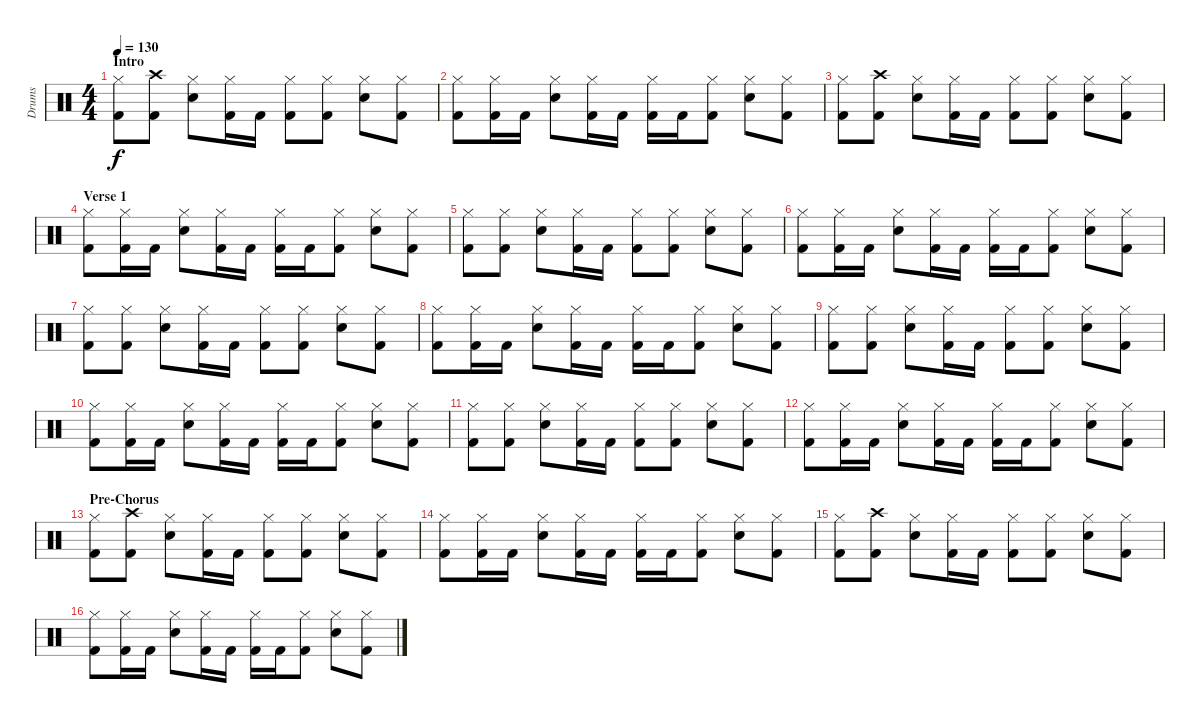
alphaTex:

\track ("Drums" "Drums") {instrument percussion}
\staff {score}
\articulation defaults
\ts (4 4)
\section ("" "Intro")
\tempo 130
\clef neutral
\ks c
("Hi-Hat (closed)" "Kick (hit) 2").8{dy f} ("Crash high (hit)" "Kick (hit) 2").8 ("Hi-Hat (closed)" "Electric Snare (hit)").8 ("Hi-Hat (closed)" "Kick (hit) 2").16 "Kick (hit) 2".16 ("Hi-Hat (closed)" "Kick (hit) 2").8 ("Hi-Hat (closed)" "Kick (hit) 2").8 ("Hi-Hat (closed)" "Electric Snare (hit)").8 ("Hi-Hat (closed)" "Kick (hit) 2").8 |
("Hi-Hat (closed)" "Kick (hit) 2").8 ("Hi-Hat (closed)" "Kick (hit) 2").16 "Kick (hit) 2".16 ("Hi-Hat (closed)" "Electric Snare (hit)").8 ("Hi-Hat (closed)" "Kick (hit) 2").16 "Kick (hit) 2".16 ("Hi-Hat (closed)" "Kick (hit) 2").16 "Kick (hit) 2".16 ("Hi-Hat (closed)" "Kick (hit) 2").8 ("Hi-Hat (closed)" "Electric Snare (hit)").8 ("Hi-Hat (closed)" "Kick (hit) 2").8 |
("Hi-Hat (closed)" "Kick (hit) 2").8 ("Crash high (hit)" "Kick (hit) 2").8 ("Hi-Hat (closed)" "Electric Snare (hit)").8 ("Hi-Hat (closed)" "Kick (hit) 2").16 "Kick (hit) 2".16 ("Hi-Hat (closed)" "Kick (hit) 2").8 ("Hi-Hat (closed)" "Kick (hit) 2").8 ("Hi-Hat (closed)" "Electric Snare (hit)").8 ("Hi-Hat (closed)" "Kick (hit) 2").8 |
\section ("" "Verse 1")
("Hi-Hat (closed)" "Kick (hit) 2").8 ("Hi-Hat (closed)" "Kick (hit) 2").16 "Kick (hit) 2".16 ("Hi-Hat (closed)" "Electric Snare (hit)").8 ("Hi-Hat (closed)" "Kick (hit) 2").16 "Kick (hit) 2".16 ("Hi-Hat (closed)" "Kick (hit) 2").16 "Kick (hit) 2".16 ("Hi-Hat (closed)" "Kick (hit) 2").8 ("Hi-Hat (closed)" "Electric Snare (hit)").8 ("Hi-Hat (closed)" "Kick (hit) 2").8 |
("Hi-Hat (closed)" "Kick (hit) 2").8 ("Hi-Hat (closed)" "Kick (hit) 2").8 ("Hi-Hat (closed)" "Electric Snare (hit)").8 ("Hi-Hat (closed)" "Kick (hit) 2").16 "Kick (hit) 2".16 ("Hi-Hat (closed)" "Kick (hit) 2").8 ("Hi-Hat (closed)" "Kick (hit) 2").8 ("Hi-Hat (closed)" "Electric Snare (hit)").8 ("Hi-Hat (closed)" "Kick (hit) 2").8 |
("Hi-Hat (closed)" "Kick (hit) 2").8 ("Hi-Hat (closed)" "Kick (hit) 2").16 "Kick (hit) 2".16 ("Hi-Hat (closed)" "Electric Snare (hit)").8 ("Hi-Hat (closed)" "Kick (hit) 2").16 "Kick (hit) 2".16 ("Hi-Hat (closed)" "Kick (hit) 2").16 "Kick (hit) 2".16 ("Hi-Hat (closed)" "Kick (hit) 2").8 ("Hi-Hat (closed)" "Electric Snare (hit)").8 ("Hi-Hat (closed)" "Kick (hit) 2").8 |
("Hi-Hat (closed)" "Kick (hit) 2").8 ("Hi-Hat (closed)" "Kick (hit) 2").8 ("Hi-Hat (closed)" "Electric Snare (hit)").8 ("Hi-Hat (closed)" "Kick (hit) 2").16 "Kick (hit) 2".16 ("Hi-Hat (closed)" "Kick (hit) 2").8 ("Hi-Hat (closed)" "Kick (hit) 2").8 ("Hi-Hat (closed)" "Electric Snare (hit)").8 ("Hi-Hat (closed)" "Kick (hit) 2").8 |
("Hi-Hat (closed)" "Kick (hit) 2").8 ("Hi-Hat (closed)" "Kick (hit) 2").16 "Kick (hit) 2".16 ("Hi-Hat (closed)" "Electric Snare (hit)").8 ("Hi-Hat (closed)" "Kick (hit) 2").16 "Kick (hit) 2".16 ("Hi-Hat (closed)" "Kick (hit) 2").16 "Kick (hit) 2".16 ("Hi-Hat (closed)" "Kick (hit) 2").8 ("Hi-Hat (closed)" "Electric Snare (hit)").8 ("Hi-Hat (closed)" "Kick (hit) 2").8 |
("Hi-Hat (closed)" "Kick (hit) 2").8 ("Hi-Hat (closed)" "Kick (hit) 2").8 ("Hi-Hat (closed)" "Electric Snare (hit)").8 ("Hi-Hat (closed)" "Kick (hit) 2").16 "Kick (hit) 2".16 ("Hi-Hat (closed)" "Kick (hit) 2").8 ("Hi-Hat (closed)" "Kick (hit) 2").8 ("Hi-Hat (closed)" "Electric Snare (hit)").8 ("Hi-Hat (closed)" "Kick (hit) 2").8 |
("Hi-Hat (closed)" "Kick (hit) 2").8 ("Hi-Hat (closed)" "Kick (hit) 2").16 "Kick (hit) 2".16 ("Hi-Hat (closed)" "Electric Snare (hit)").8 ("Hi-Hat (closed)" "Kick (hit) 2").16 "Kick (hit) 2".16 ("Hi-Hat (closed)" "Kick (hit) 2").16 "Kick (hit) 2".16 ("Hi-Hat (closed)" "Kick (hit) 2").8 ("Hi-Hat (closed)" "Electric Snare (hit)").8 ("Hi-Hat (closed)" "Kick (hit) 2").8 |
("Hi-Hat (closed)" "Kick (hit) 2").8 ("Hi-Hat (closed)" "Kick (hit) 2").8 ("Hi-Hat (closed)" "Electric Snare (hit)").8 ("Hi-Hat (closed)" "Kick (hit) 2").16 "Kick (hit) 2".16 ("Hi-Hat (closed)" "Kick (hit) 2").8 ("Hi-Hat (closed)" "Kick (hit) 2").8 ("Hi-Hat (closed)" "Electric Snare (hit)").8 ("Hi-Hat (closed)" "Kick (hit) 2").8 |
("Hi-Hat (closed)" "Kick (hit) 2").8 ("Hi-Hat (closed)" "Kick (hit) 2").16 "Kick (hit) 2".16 ("Hi-Hat (closed)" "Electric Snare (hit)").8 ("Hi-Hat (closed)" "Kick (hit) 2").16 "Kick (hit) 2".16 ("Hi-Hat (closed)" "Kick (hit) 2").16 "Kick (hit) 2".16 ("Hi-Hat (closed)" "Kick (hit) 2").8 ("Hi-Hat (closed)" "Electric Snare (hit)").8 ("Hi-Hat (closed)" "Kick (hit) 2").8 |
\section ("" "Pre-Chorus")
("Hi-Hat (closed)" "Kick (hit) 2").8 ("Crash high (hit)" "Kick (hit) 2").8 ("Hi-Hat (closed)" "Electric Snare (hit)").8 ("Hi-Hat (closed)" "Kick (hit) 2").16 "Kick (hit) 2".16 ("Hi-Hat (closed)" "Kick (hit) 2").8 ("Hi-Hat (closed)" "Kick (hit) 2").8 ("Hi-Hat (closed)" "Electric Snare (hit)").8 ("Hi-Hat (closed)" "Kick (hit) 2").8 |
("Hi-Hat (closed)" "Kick (hit) 2").8 ("Hi-Hat (closed)" "Kick (hit) 2").16 "Kick (hit) 2".16 ("Hi-Hat (closed)" "Electric Snare (hit)").8 ("Hi-Hat (closed)" "Kick (hit) 2").16 "Kick (hit) 2".16 ("Hi-Hat (closed)" "Kick (hit) 2").16 "Kick (hit) 2".16 ("Hi-Hat (closed)" "Kick (hit) 2").8 ("Hi-Hat (closed)" "Electric Snare (hit)").8 ("Hi-Hat (closed)" "Kick (hit) 2").8 |
("Hi-Hat (closed)" "Kick (hit) 2").8 ("Crash high (hit)" "Kick (hit) 2").8 ("Hi-Hat (closed)" "Electric Snare (hit)").8 ("Hi-Hat (closed)" "Kick (hit) 2").16 "Kick (hit) 2".16 ("Hi-Hat (closed)" "Kick (hit) 2").8 ("Hi-Hat (closed)" "Kick (hit) 2").8 ("Hi-Hat (closed)" "Electric Snare (hit)").8 ("Hi-Hat (closed)" "Kick (hit) 2").8 |
("Hi-Hat (closed)" "Kick (hit) 2").8 ("Hi-Hat (closed)" "Kick (hit) 2").16 "Kick (hit) 2".16 ("Hi-Hat (closed)" "Electric Snare (hit)").8 ("Hi-Hat (closed)" "Kick (hit) 2").16 "Kick (hit) 2".16 ("Hi-Hat (closed)" "Kick (hit) 2").16 "Kick (hit) 2".16 ("Hi-Hat (closed)" "Kick (hit) 2").8 ("Hi-Hat (closed)" "Electric Snare (hit)").8 ("Hi-Hat (closed)" "Kick (hit) 2").8
